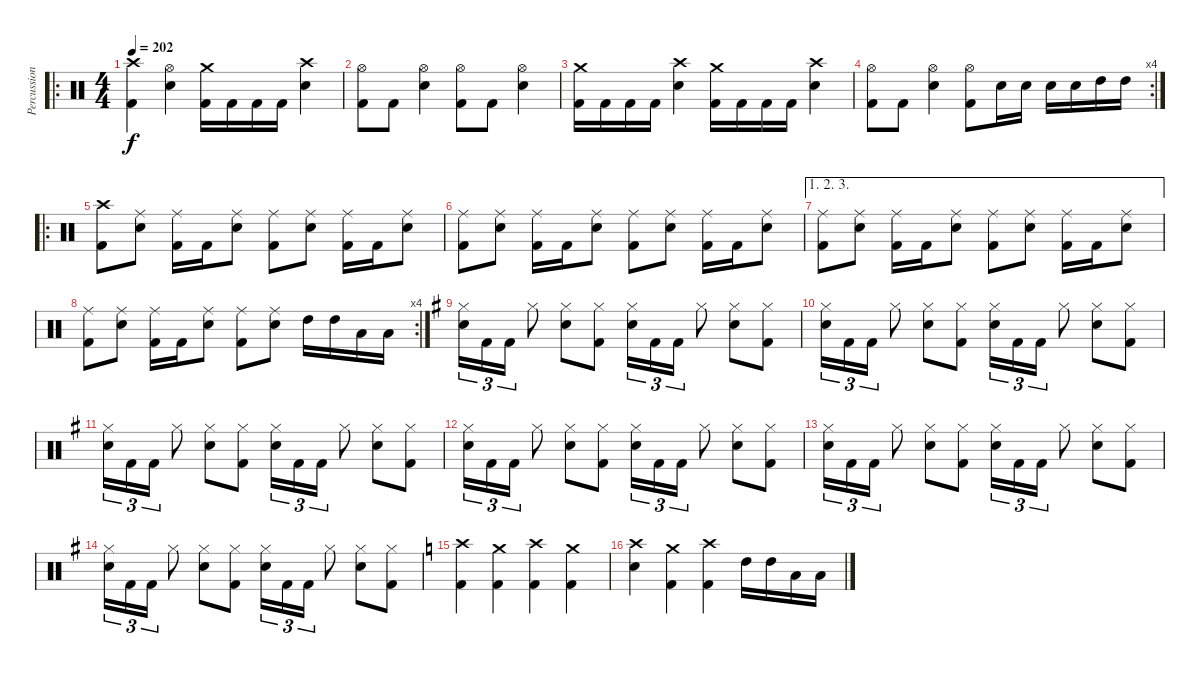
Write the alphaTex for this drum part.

\track ("Percussion" "Percussion") {instrument percussion}
\staff {score}
\articulation defaults
\ro
\ts (4 4)
\tempo 202
\clef neutral
\ks c
("Crash high (hit)" "Kick (hit) 2").4{dy f} ("Hi-Hat (open)" "Electric Snare (hit)").4 ("Crash medium (hit)" "Kick (hit) 2").16 "Kick (hit) 2".16 "Kick (hit) 2".16 "Kick (hit) 2".16 ("Crash high (hit)" "Electric Snare (hit)").4 |
("Hi-Hat (open)" "Kick (hit) 2").8 "Kick (hit) 2".8 ("Hi-Hat (open)" "Electric Snare (hit)").4 ("Hi-Hat (open)" "Kick (hit) 2").8 "Kick (hit) 2".8 ("Hi-Hat (open)" "Electric Snare (hit)").4 |
("Crash medium (hit)" "Kick (hit) 2").16 "Kick (hit) 2".16 "Kick (hit) 2".16 "Kick (hit) 2".16 ("Crash high (hit)" "Electric Snare (hit)").4 ("Crash medium (hit)" "Kick (hit) 2").16 "Kick (hit) 2".16 "Kick (hit) 2".16 "Kick (hit) 2".16 ("Crash high (hit)" "Electric Snare (hit)").4 |
\rc 4
("Hi-Hat (open)" "Kick (hit) 2").8 "Kick (hit) 2".8 ("Hi-Hat (open)" "Electric Snare (hit)").4 ("Hi-Hat (open)" "Kick (hit) 2").8 "Electric Snare (hit)".16 "Electric Snare (hit)".16 "Electric Snare (hit)".16 "Electric Snare (hit)".16 "High Tom (hit)".16 "High Tom (hit)".16 |
\ro
("Crash high (hit)" "Kick (hit) 2").8 ("Ride (middle)" "Electric Snare (hit)").8 ("Ride (middle)" "Kick (hit) 2").16 "Kick (hit) 2".16 ("Ride (middle)" "Electric Snare (hit)").8 ("Ride (middle)" "Kick (hit) 2").8 ("Ride (middle)" "Electric Snare (hit)").8 ("Ride (middle)" "Kick (hit) 2").16 "Kick (hit) 2".16 ("Ride (middle)" "Electric Snare (hit)").8 |
("Ride (middle)" "Kick (hit) 2").8 ("Ride (middle)" "Electric Snare (hit)").8 ("Ride (middle)" "Kick (hit) 2").16 "Kick (hit) 2".16 ("Ride (middle)" "Electric Snare (hit)").8 ("Ride (middle)" "Kick (hit) 2").8 ("Ride (middle)" "Electric Snare (hit)").8 ("Ride (middle)" "Kick (hit) 2").16 "Kick (hit) 2".16 ("Ride (middle)" "Electric Snare (hit)").8 |
\ae (1 2 3)
("Ride (middle)" "Kick (hit) 2").8 ("Ride (middle)" "Electric Snare (hit)").8 ("Ride (middle)" "Kick (hit) 2").16 "Kick (hit) 2".16 ("Ride (middle)" "Electric Snare (hit)").8 ("Ride (middle)" "Kick (hit) 2").8 ("Ride (middle)" "Electric Snare (hit)").8 ("Ride (middle)" "Kick (hit) 2").16 "Kick (hit) 2".16 ("Ride (middle)" "Electric Snare (hit)").8 |
\rc 4
("Ride (middle)" "Kick (hit) 2").8 ("Ride (middle)" "Electric Snare (hit)").8 ("Ride (middle)" "Kick (hit) 2").16 "Kick (hit) 2".16 ("Ride (middle)" "Electric Snare (hit)").8 ("Ride (middle)" "Kick (hit) 2").8 ("Ride (middle)" "Electric Snare (hit)").8 "High Tom (hit)".16 "High Tom (hit)".16 "Low Tom (hit)".16 "Low Tom (hit)".16 |
\ks g
("Hi-Hat (closed)" "Electric Snare (hit)").16{tu (3 2)} "Kick (hit) 2".16{tu (3 2)} "Kick (hit) 2".16{tu (3 2)} "Hi-Hat (closed)".8 ("Hi-Hat (closed)" "Electric Snare (hit)").8 ("Hi-Hat (closed)" "Kick (hit) 2").8 ("Hi-Hat (closed)" "Electric Snare (hit)").16{tu (3 2)} "Kick (hit) 2".16{tu (3 2)} "Kick (hit) 2".16{tu (3 2)} "Hi-Hat (closed)".8 ("Hi-Hat (closed)" "Electric Snare (hit)").8 ("Hi-Hat (closed)" "Kick (hit) 2").8 |
("Hi-Hat (closed)" "Electric Snare (hit)").16{tu (3 2)} "Kick (hit) 2".16{tu (3 2)} "Kick (hit) 2".16{tu (3 2)} "Hi-Hat (closed)".8 ("Hi-Hat (closed)" "Electric Snare (hit)").8 ("Hi-Hat (closed)" "Kick (hit) 2").8 ("Hi-Hat (closed)" "Electric Snare (hit)").16{tu (3 2)} "Kick (hit) 2".16{tu (3 2)} "Kick (hit) 2".16{tu (3 2)} "Hi-Hat (closed)".8 ("Hi-Hat (closed)" "Electric Snare (hit)").8 ("Hi-Hat (closed)" "Kick (hit) 2").8 |
("Hi-Hat (closed)" "Electric Snare (hit)").16{tu (3 2)} "Kick (hit) 2".16{tu (3 2)} "Kick (hit) 2".16{tu (3 2)} "Hi-Hat (closed)".8 ("Hi-Hat (closed)" "Electric Snare (hit)").8 ("Hi-Hat (closed)" "Kick (hit) 2").8 ("Hi-Hat (closed)" "Electric Snare (hit)").16{tu (3 2)} "Kick (hit) 2".16{tu (3 2)} "Kick (hit) 2".16{tu (3 2)} "Hi-Hat (closed)".8 ("Hi-Hat (closed)" "Electric Snare (hit)").8 ("Hi-Hat (closed)" "Kick (hit) 2").8 |
("Hi-Hat (closed)" "Electric Snare (hit)").16{tu (3 2)} "Kick (hit) 2".16{tu (3 2)} "Kick (hit) 2".16{tu (3 2)} "Hi-Hat (closed)".8 ("Hi-Hat (closed)" "Electric Snare (hit)").8 ("Hi-Hat (closed)" "Kick (hit) 2").8 ("Hi-Hat (closed)" "Electric Snare (hit)").16{tu (3 2)} "Kick (hit) 2".16{tu (3 2)} "Kick (hit) 2".16{tu (3 2)} "Hi-Hat (closed)".8 ("Hi-Hat (closed)" "Electric Snare (hit)").8 ("Hi-Hat (closed)" "Kick (hit) 2").8 |
("Hi-Hat (closed)" "Electric Snare (hit)").16{tu (3 2)} "Kick (hit) 2".16{tu (3 2)} "Kick (hit) 2".16{tu (3 2)} "Hi-Hat (closed)".8 ("Hi-Hat (closed)" "Electric Snare (hit)").8 ("Hi-Hat (closed)" "Kick (hit) 2").8 ("Hi-Hat (closed)" "Electric Snare (hit)").16{tu (3 2)} "Kick (hit) 2".16{tu (3 2)} "Kick (hit) 2".16{tu (3 2)} "Hi-Hat (closed)".8 ("Hi-Hat (closed)" "Electric Snare (hit)").8 ("Hi-Hat (closed)" "Kick (hit) 2").8 |
("Hi-Hat (closed)" "Electric Snare (hit)").16{tu (3 2)} "Kick (hit) 2".16{tu (3 2)} "Kick (hit) 2".16{tu (3 2)} "Hi-Hat (closed)".8 ("Hi-Hat (closed)" "Electric Snare (hit)").8 ("Hi-Hat (closed)" "Kick (hit) 2").8 ("Hi-Hat (closed)" "Electric Snare (hit)").16{tu (3 2)} "Kick (hit) 2".16{tu (3 2)} "Kick (hit) 2".16{tu (3 2)} "Hi-Hat (closed)".8 ("Hi-Hat (closed)" "Electric Snare (hit)").8 ("Hi-Hat (closed)" "Kick (hit) 2").8 |
\ks c
("Crash high (hit)" "Kick (hit) 2").4 ("Crash medium (hit)" "Kick (hit) 2").4 ("Crash high (hit)" "Kick (hit) 2").4 ("Crash medium (hit)" "Kick (hit) 2").4 |
("Crash high (hit)" "Electric Snare (hit)").4 ("Crash medium (hit)" "Kick (hit) 2").4 ("Crash high (hit)" "Kick (hit) 2").4 "High Tom (hit)".16 "High Tom (hit)".16 "Low Tom (hit)".16 "Low Tom (hit)".16
